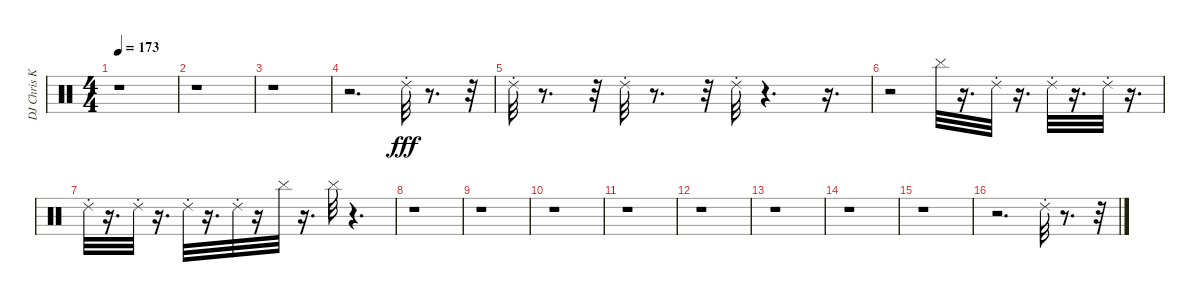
\track ("DJ Chris Kilmore-Turntables" "DJ Chris K") {instrument percussion}
\staff {score}
\articulation defaults
\ts (4 4)
\tempo 173
\clef neutral
\ks c
r.1{dy mf} |
r.1 |
r.1 |
r.2{d} "Ride (choke) 2".32{dy fff} r.8{d} r.32 |
"Ride (choke) 2".32 r.8{d} r.32 "Ride (choke) 2".32 r.8{d} r.32 "Ride (choke) 2".32 r.4{d} r.16{d} |
r.2 "Cymbal (hit)".32 r.16{d} "Ride (choke) 2".32 r.16{d} "Ride (choke) 2".32 r.16{d} "Ride (choke) 2".32 r.16{d} |
"Ride (choke) 2".32 r.16{d} "Ride (choke) 2".32 r.16{d} "Ride (choke) 2".32 r.16{d} "Ride (choke) 2".32 r.16 "Cymbal (hit)".32 r.16{d} "Cymbal (hit)".32 r.4{d} |
r.1 |
r.1 |
r.1 |
r.1 |
r.1 |
r.1 |
r.1 |
r.1 |
r.2{d} "Ride (choke) 2".32 r.8{d} r.32
